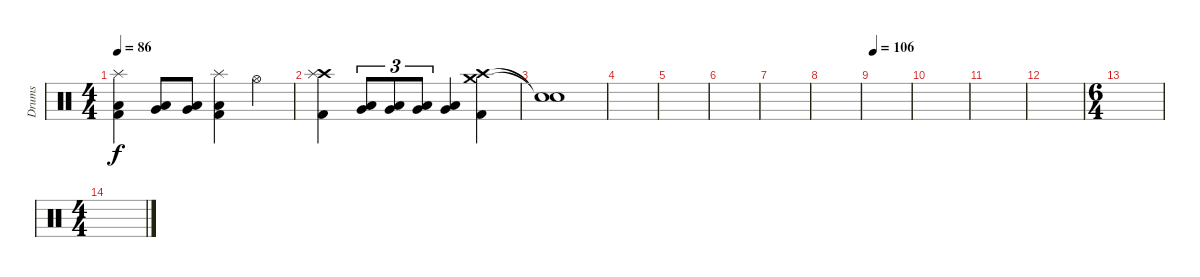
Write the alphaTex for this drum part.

\track ("Drums" "Drums") {instrument percussion}
\staff {score}
\articulation defaults
\ts (4 4)
\tempo 86
\clef neutral
\ks c
("Splash (hit)" "Low Floor Tom (hit)" "Kick (hit) 2").4{dy f} ("Low Tom (hit)" "Very Low Tom (hit)").8 ("Low Tom (hit)" "Very Low Tom (hit)").8 ("Splash (hit)" "Low Floor Tom (hit)" "Kick (hit) 2").4 "Hi-Hat (open)".4 |
("Crash high (hit)" "Splash (hit)" "Kick (hit) 2").4 ("Low Tom (hit)" "Very Low Tom (hit)").8{tu (3 2)} ("Low Tom (hit)" "Very Low Tom (hit)").8{tu (3 2)} ("Low Tom (hit)" "Very Low Tom (hit)").8{tu (3 2)} ("Low Tom (hit)" "Very Low Tom (hit)").4 ("Crash high (hit)" "Crash medium (hit)" "Kick (hit) 2").4 |
("Snare (hit)"{t} "Snare (hit)"{t}).1 |
|
|
|
|
|
\tempo 106
|
|
|
|
\ts (6 4)
|
\ts (4 4)
